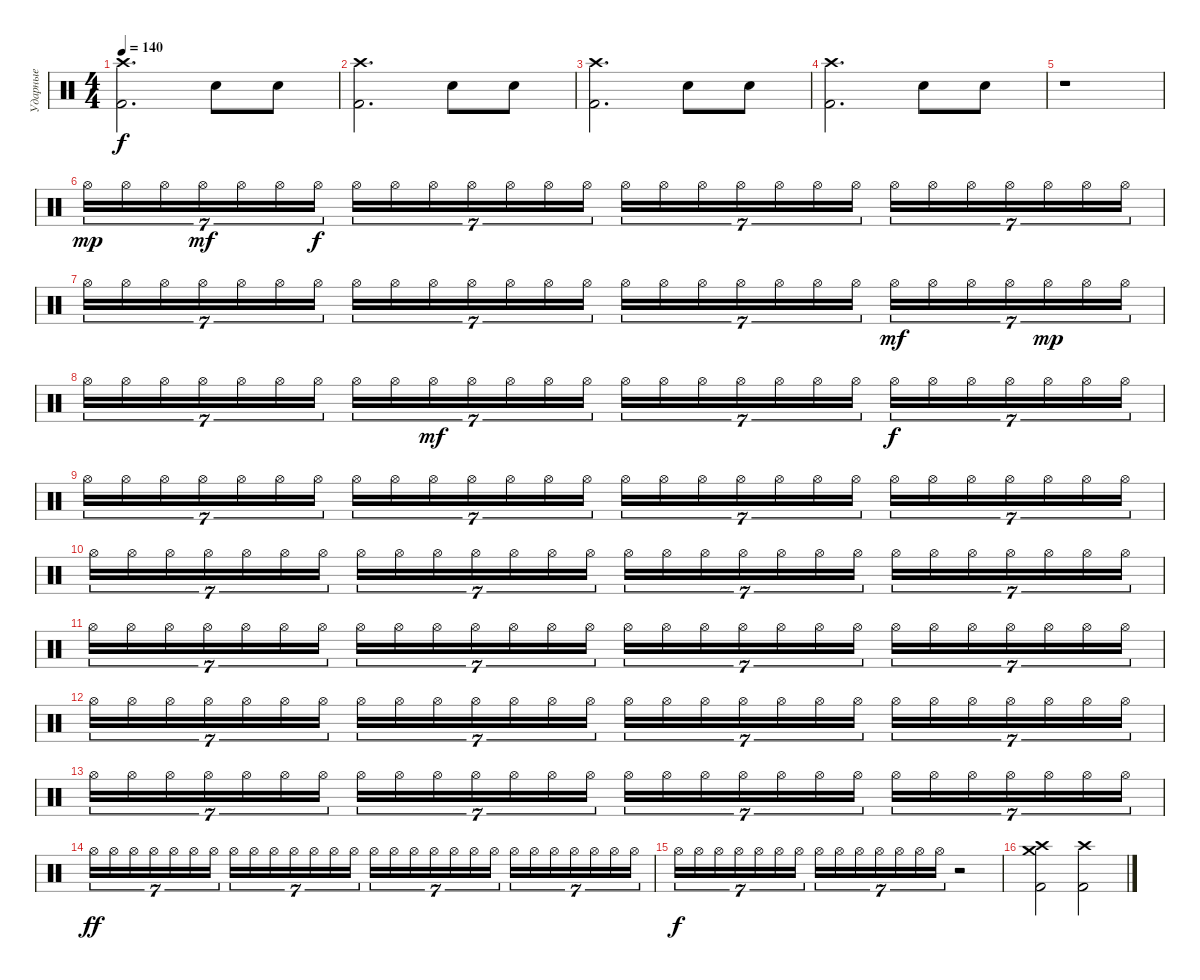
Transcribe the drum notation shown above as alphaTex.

\track ("Ударные" "Ударные") {instrument percussion}
\staff
\articulation defaults
\ts (4 4)
\tempo 140
\clef neutral
\ks c
("Kick (hit) 2" "Crash high (hit)").2{d dy f} "Snare (hit) 2".8 "Snare (hit) 2".8 |
("Kick (hit) 2" "Crash high (hit)").2{d} "Snare (hit) 2".8 "Snare (hit) 2".8 |
("Kick (hit) 2" "Crash high (hit)").2{d} "Snare (hit) 2".8 "Snare (hit) 2".8 |
("Kick (hit) 2" "Crash high (hit)").2{d} "Snare (hit) 2".8 "Snare (hit) 2".8 |
r.1 |
"Hi-Hat (open)".16{tu (7 4) dy mp} "Hi-Hat (open)".16{tu (7 4)} "Hi-Hat (open)".16{tu (7 4)} "Hi-Hat (open)".16{tu (7 4) dy mf} "Hi-Hat (open)".16{tu (7 4)} "Hi-Hat (open)".16{tu (7 4)} "Hi-Hat (open)".16{tu (7 4) dy f} "Hi-Hat (open)".16{tu (7 4)} "Hi-Hat (open)".16{tu (7 4)} "Hi-Hat (open)".16{tu (7 4)} "Hi-Hat (open)".16{tu (7 4)} "Hi-Hat (open)".16{tu (7 4)} "Hi-Hat (open)".16{tu (7 4)} "Hi-Hat (open)".16{tu (7 4)} "Hi-Hat (open)".16{tu (7 4)} "Hi-Hat (open)".16{tu (7 4)} "Hi-Hat (open)".16{tu (7 4)} "Hi-Hat (open)".16{tu (7 4)} "Hi-Hat (open)".16{tu (7 4)} "Hi-Hat (open)".16{tu (7 4)} "Hi-Hat (open)".16{tu (7 4)} "Hi-Hat (open)".16{tu (7 4)} "Hi-Hat (open)".16{tu (7 4)} "Hi-Hat (open)".16{tu (7 4)} "Hi-Hat (open)".16{tu (7 4)} "Hi-Hat (open)".16{tu (7 4)} "Hi-Hat (open)".16{tu (7 4)} "Hi-Hat (open)".16{tu (7 4)} |
"Hi-Hat (open)".16{tu (7 4)} "Hi-Hat (open)".16{tu (7 4)} "Hi-Hat (open)".16{tu (7 4)} "Hi-Hat (open)".16{tu (7 4)} "Hi-Hat (open)".16{tu (7 4)} "Hi-Hat (open)".16{tu (7 4)} "Hi-Hat (open)".16{tu (7 4)} "Hi-Hat (open)".16{tu (7 4)} "Hi-Hat (open)".16{tu (7 4)} "Hi-Hat (open)".16{tu (7 4)} "Hi-Hat (open)".16{tu (7 4)} "Hi-Hat (open)".16{tu (7 4)} "Hi-Hat (open)".16{tu (7 4)} "Hi-Hat (open)".16{tu (7 4)} "Hi-Hat (open)".16{tu (7 4)} "Hi-Hat (open)".16{tu (7 4)} "Hi-Hat (open)".16{tu (7 4)} "Hi-Hat (open)".16{tu (7 4)} "Hi-Hat (open)".16{tu (7 4)} "Hi-Hat (open)".16{tu (7 4)} "Hi-Hat (open)".16{tu (7 4)} "Hi-Hat (open)".16{tu (7 4) dy mf} "Hi-Hat (open)".16{tu (7 4)} "Hi-Hat (open)".16{tu (7 4)} "Hi-Hat (open)".16{tu (7 4)} "Hi-Hat (open)".16{tu (7 4) dy mp} "Hi-Hat (open)".16{tu (7 4)} "Hi-Hat (open)".16{tu (7 4)} |
"Hi-Hat (open)".16{tu (7 4)} "Hi-Hat (open)".16{tu (7 4)} "Hi-Hat (open)".16{tu (7 4)} "Hi-Hat (open)".16{tu (7 4)} "Hi-Hat (open)".16{tu (7 4)} "Hi-Hat (open)".16{tu (7 4)} "Hi-Hat (open)".16{tu (7 4)} "Hi-Hat (open)".16{tu (7 4)} "Hi-Hat (open)".16{tu (7 4)} "Hi-Hat (open)".16{tu (7 4) dy mf} "Hi-Hat (open)".16{tu (7 4)} "Hi-Hat (open)".16{tu (7 4)} "Hi-Hat (open)".16{tu (7 4)} "Hi-Hat (open)".16{tu (7 4)} "Hi-Hat (open)".16{tu (7 4)} "Hi-Hat (open)".16{tu (7 4)} "Hi-Hat (open)".16{tu (7 4)} "Hi-Hat (open)".16{tu (7 4)} "Hi-Hat (open)".16{tu (7 4)} "Hi-Hat (open)".16{tu (7 4)} "Hi-Hat (open)".16{tu (7 4)} "Hi-Hat (open)".16{tu (7 4) dy f} "Hi-Hat (open)".16{tu (7 4)} "Hi-Hat (open)".16{tu (7 4)} "Hi-Hat (open)".16{tu (7 4)} "Hi-Hat (open)".16{tu (7 4)} "Hi-Hat (open)".16{tu (7 4)} "Hi-Hat (open)".16{tu (7 4)} |
"Hi-Hat (open)".16{tu (7 4)} "Hi-Hat (open)".16{tu (7 4)} "Hi-Hat (open)".16{tu (7 4)} "Hi-Hat (open)".16{tu (7 4)} "Hi-Hat (open)".16{tu (7 4)} "Hi-Hat (open)".16{tu (7 4)} "Hi-Hat (open)".16{tu (7 4)} "Hi-Hat (open)".16{tu (7 4)} "Hi-Hat (open)".16{tu (7 4)} "Hi-Hat (open)".16{tu (7 4)} "Hi-Hat (open)".16{tu (7 4)} "Hi-Hat (open)".16{tu (7 4)} "Hi-Hat (open)".16{tu (7 4)} "Hi-Hat (open)".16{tu (7 4)} "Hi-Hat (open)".16{tu (7 4)} "Hi-Hat (open)".16{tu (7 4)} "Hi-Hat (open)".16{tu (7 4)} "Hi-Hat (open)".16{tu (7 4)} "Hi-Hat (open)".16{tu (7 4)} "Hi-Hat (open)".16{tu (7 4)} "Hi-Hat (open)".16{tu (7 4)} "Hi-Hat (open)".16{tu (7 4)} "Hi-Hat (open)".16{tu (7 4)} "Hi-Hat (open)".16{tu (7 4)} "Hi-Hat (open)".16{tu (7 4)} "Hi-Hat (open)".16{tu (7 4)} "Hi-Hat (open)".16{tu (7 4)} "Hi-Hat (open)".16{tu (7 4)} |
"Hi-Hat (open)".16{tu (7 4)} "Hi-Hat (open)".16{tu (7 4)} "Hi-Hat (open)".16{tu (7 4)} "Hi-Hat (open)".16{tu (7 4)} "Hi-Hat (open)".16{tu (7 4)} "Hi-Hat (open)".16{tu (7 4)} "Hi-Hat (open)".16{tu (7 4)} "Hi-Hat (open)".16{tu (7 4)} "Hi-Hat (open)".16{tu (7 4)} "Hi-Hat (open)".16{tu (7 4)} "Hi-Hat (open)".16{tu (7 4)} "Hi-Hat (open)".16{tu (7 4)} "Hi-Hat (open)".16{tu (7 4)} "Hi-Hat (open)".16{tu (7 4)} "Hi-Hat (open)".16{tu (7 4)} "Hi-Hat (open)".16{tu (7 4)} "Hi-Hat (open)".16{tu (7 4)} "Hi-Hat (open)".16{tu (7 4)} "Hi-Hat (open)".16{tu (7 4)} "Hi-Hat (open)".16{tu (7 4)} "Hi-Hat (open)".16{tu (7 4)} "Hi-Hat (open)".16{tu (7 4)} "Hi-Hat (open)".16{tu (7 4)} "Hi-Hat (open)".16{tu (7 4)} "Hi-Hat (open)".16{tu (7 4)} "Hi-Hat (open)".16{tu (7 4)} "Hi-Hat (open)".16{tu (7 4)} "Hi-Hat (open)".16{tu (7 4)} |
"Hi-Hat (open)".16{tu (7 4)} "Hi-Hat (open)".16{tu (7 4)} "Hi-Hat (open)".16{tu (7 4)} "Hi-Hat (open)".16{tu (7 4)} "Hi-Hat (open)".16{tu (7 4)} "Hi-Hat (open)".16{tu (7 4)} "Hi-Hat (open)".16{tu (7 4)} "Hi-Hat (open)".16{tu (7 4)} "Hi-Hat (open)".16{tu (7 4)} "Hi-Hat (open)".16{tu (7 4)} "Hi-Hat (open)".16{tu (7 4)} "Hi-Hat (open)".16{tu (7 4)} "Hi-Hat (open)".16{tu (7 4)} "Hi-Hat (open)".16{tu (7 4)} "Hi-Hat (open)".16{tu (7 4)} "Hi-Hat (open)".16{tu (7 4)} "Hi-Hat (open)".16{tu (7 4)} "Hi-Hat (open)".16{tu (7 4)} "Hi-Hat (open)".16{tu (7 4)} "Hi-Hat (open)".16{tu (7 4)} "Hi-Hat (open)".16{tu (7 4)} "Hi-Hat (open)".16{tu (7 4)} "Hi-Hat (open)".16{tu (7 4)} "Hi-Hat (open)".16{tu (7 4)} "Hi-Hat (open)".16{tu (7 4)} "Hi-Hat (open)".16{tu (7 4)} "Hi-Hat (open)".16{tu (7 4)} "Hi-Hat (open)".16{tu (7 4)} |
"Hi-Hat (open)".16{tu (7 4)} "Hi-Hat (open)".16{tu (7 4)} "Hi-Hat (open)".16{tu (7 4)} "Hi-Hat (open)".16{tu (7 4)} "Hi-Hat (open)".16{tu (7 4)} "Hi-Hat (open)".16{tu (7 4)} "Hi-Hat (open)".16{tu (7 4)} "Hi-Hat (open)".16{tu (7 4)} "Hi-Hat (open)".16{tu (7 4)} "Hi-Hat (open)".16{tu (7 4)} "Hi-Hat (open)".16{tu (7 4)} "Hi-Hat (open)".16{tu (7 4)} "Hi-Hat (open)".16{tu (7 4)} "Hi-Hat (open)".16{tu (7 4)} "Hi-Hat (open)".16{tu (7 4)} "Hi-Hat (open)".16{tu (7 4)} "Hi-Hat (open)".16{tu (7 4)} "Hi-Hat (open)".16{tu (7 4)} "Hi-Hat (open)".16{tu (7 4)} "Hi-Hat (open)".16{tu (7 4)} "Hi-Hat (open)".16{tu (7 4)} "Hi-Hat (open)".16{tu (7 4)} "Hi-Hat (open)".16{tu (7 4)} "Hi-Hat (open)".16{tu (7 4)} "Hi-Hat (open)".16{tu (7 4)} "Hi-Hat (open)".16{tu (7 4)} "Hi-Hat (open)".16{tu (7 4)} "Hi-Hat (open)".16{tu (7 4)} |
"Hi-Hat (open)".16{tu (7 4)} "Hi-Hat (open)".16{tu (7 4)} "Hi-Hat (open)".16{tu (7 4)} "Hi-Hat (open)".16{tu (7 4)} "Hi-Hat (open)".16{tu (7 4)} "Hi-Hat (open)".16{tu (7 4)} "Hi-Hat (open)".16{tu (7 4)} "Hi-Hat (open)".16{tu (7 4)} "Hi-Hat (open)".16{tu (7 4)} "Hi-Hat (open)".16{tu (7 4)} "Hi-Hat (open)".16{tu (7 4)} "Hi-Hat (open)".16{tu (7 4)} "Hi-Hat (open)".16{tu (7 4)} "Hi-Hat (open)".16{tu (7 4)} "Hi-Hat (open)".16{tu (7 4)} "Hi-Hat (open)".16{tu (7 4)} "Hi-Hat (open)".16{tu (7 4)} "Hi-Hat (open)".16{tu (7 4)} "Hi-Hat (open)".16{tu (7 4)} "Hi-Hat (open)".16{tu (7 4)} "Hi-Hat (open)".16{tu (7 4)} "Hi-Hat (open)".16{tu (7 4)} "Hi-Hat (open)".16{tu (7 4)} "Hi-Hat (open)".16{tu (7 4)} "Hi-Hat (open)".16{tu (7 4)} "Hi-Hat (open)".16{tu (7 4)} "Hi-Hat (open)".16{tu (7 4)} "Hi-Hat (open)".16{tu (7 4)} |
"Hi-Hat (open)".16{tu (7 4) dy ff} "Hi-Hat (open)".16{tu (7 4)} "Hi-Hat (open)".16{tu (7 4)} "Hi-Hat (open)".16{tu (7 4)} "Hi-Hat (open)".16{tu (7 4)} "Hi-Hat (open)".16{tu (7 4)} "Hi-Hat (open)".16{tu (7 4)} "Hi-Hat (open)".16{tu (7 4)} "Hi-Hat (open)".16{tu (7 4)} "Hi-Hat (open)".16{tu (7 4)} "Hi-Hat (open)".16{tu (7 4)} "Hi-Hat (open)".16{tu (7 4)} "Hi-Hat (open)".16{tu (7 4)} "Hi-Hat (open)".16{tu (7 4)} "Hi-Hat (open)".16{tu (7 4)} "Hi-Hat (open)".16{tu (7 4)} "Hi-Hat (open)".16{tu (7 4)} "Hi-Hat (open)".16{tu (7 4)} "Hi-Hat (open)".16{tu (7 4)} "Hi-Hat (open)".16{tu (7 4)} "Hi-Hat (open)".16{tu (7 4)} "Hi-Hat (open)".16{tu (7 4)} "Hi-Hat (open)".16{tu (7 4)} "Hi-Hat (open)".16{tu (7 4)} "Hi-Hat (open)".16{tu (7 4)} "Hi-Hat (open)".16{tu (7 4)} "Hi-Hat (open)".16{tu (7 4)} "Hi-Hat (open)".16{tu (7 4)} |
"Hi-Hat (open)".16{tu (7 4) dy f} "Hi-Hat (open)".16{tu (7 4)} "Hi-Hat (open)".16{tu (7 4)} "Hi-Hat (open)".16{tu (7 4)} "Hi-Hat (open)".16{tu (7 4)} "Hi-Hat (open)".16{tu (7 4)} "Hi-Hat (open)".16{tu (7 4)} "Hi-Hat (open)".16{tu (7 4)} "Hi-Hat (open)".16{tu (7 4)} "Hi-Hat (open)".16{tu (7 4)} "Hi-Hat (open)".16{tu (7 4)} "Hi-Hat (open)".16{tu (7 4)} "Hi-Hat (open)".16{tu (7 4)} "Hi-Hat (open)".16{tu (7 4)} r.2 |
("Kick (hit) 2" "Crash medium (hit)" "Crash high (hit)").2 ("Kick (hit) 2" "Crash high (hit)").2
